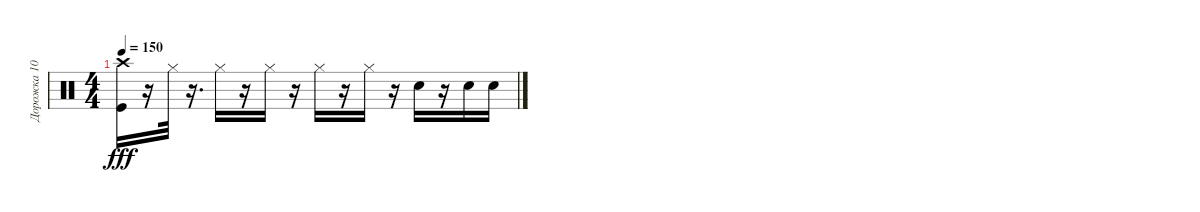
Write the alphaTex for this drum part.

\track ("Дорожка 10" "Дорожка 10") {instrument percussion}
\staff {score}
\articulation defaults
\ts (4 4)
\tempo 150
\clef neutral
\ks c
("Crash high (hit)" "Kick (hit)").16{dy fff} r.16 "Hi-Hat (closed)".32 r.16{d} "Hi-Hat (closed)".16 r.16 "Hi-Hat (closed)".16 r.16 "Hi-Hat (closed)".16 r.16 "Hi-Hat (closed)".16 r.16 "Electric Snare (hit)".16 r.16 "Electric Snare (hit)".16 "Electric Snare (hit)".16
